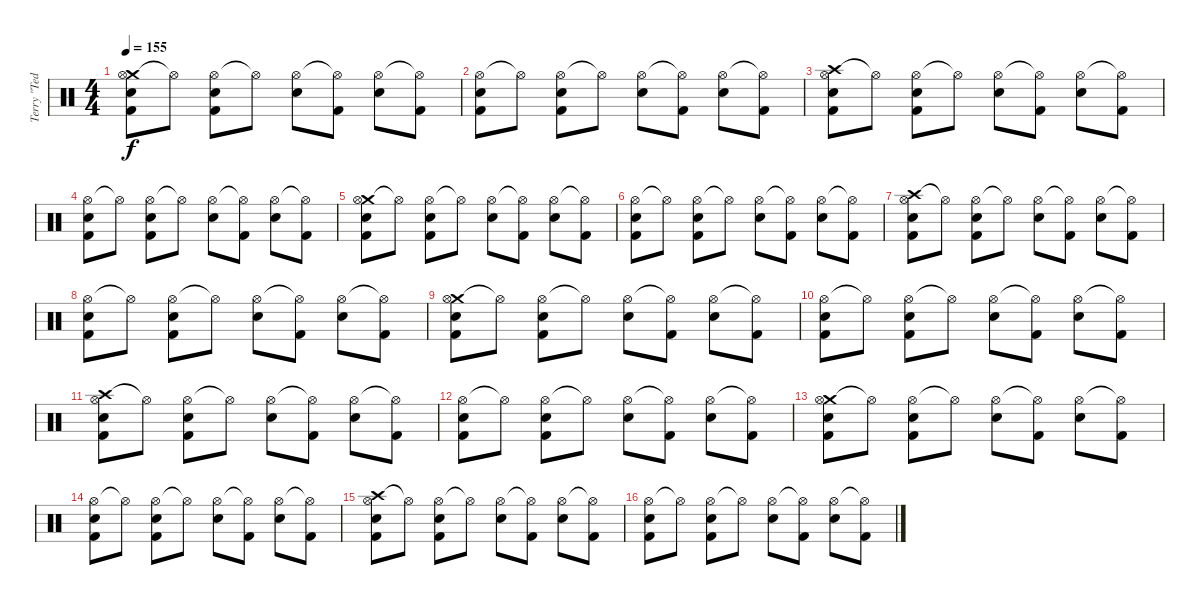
\track ("Terry \"Ted\" Bozzio" "Terry \"Ted") {instrument percussion}
\staff {score}
\articulation defaults
\ts (4 4)
\tempo 155
\clef neutral
\ks c
("Crash medium (hit)" "Hi-Hat (open)" "Electric Snare (hit)" "Kick (hit) 2").8{dy f} "Hi-Hat (open)"{t}.8 ("Hi-Hat (open)" "Electric Snare (hit)" "Kick (hit) 2").8{beam merge} "Hi-Hat (open)"{t}.8 ("Hi-Hat (open)" "Electric Snare (hit)").8 ("Hi-Hat (open)"{t} "Kick (hit) 2").8 ("Hi-Hat (open)" "Electric Snare (hit)").8 ("Hi-Hat (open)"{t} "Kick (hit) 2").8 |
("Hi-Hat (open)" "Electric Snare (hit)" "Kick (hit) 2").8 "Hi-Hat (open)"{t}.8 ("Hi-Hat (open)" "Electric Snare (hit)" "Kick (hit) 2").8{beam merge} "Hi-Hat (open)"{t}.8 ("Hi-Hat (open)" "Electric Snare (hit)").8 ("Hi-Hat (open)"{t} "Kick (hit) 2").8 ("Hi-Hat (open)" "Electric Snare (hit)").8 ("Hi-Hat (open)"{t} "Kick (hit) 2").8 |
("Crash high (hit)" "Hi-Hat (open)" "Electric Snare (hit)" "Kick (hit) 2").8 "Hi-Hat (open)"{t}.8 ("Hi-Hat (open)" "Electric Snare (hit)" "Kick (hit) 2").8{beam merge} "Hi-Hat (open)"{t}.8 ("Hi-Hat (open)" "Electric Snare (hit)").8 ("Hi-Hat (open)"{t} "Kick (hit) 2").8 ("Hi-Hat (open)" "Electric Snare (hit)").8 ("Hi-Hat (open)"{t} "Kick (hit) 2").8 |
("Hi-Hat (open)" "Electric Snare (hit)" "Kick (hit) 2").8 "Hi-Hat (open)"{t}.8 ("Hi-Hat (open)" "Electric Snare (hit)" "Kick (hit) 2").8{beam merge} "Hi-Hat (open)"{t}.8 ("Hi-Hat (open)" "Electric Snare (hit)").8 ("Hi-Hat (open)"{t} "Kick (hit) 2").8 ("Hi-Hat (open)" "Electric Snare (hit)").8 ("Hi-Hat (open)"{t} "Kick (hit) 2").8 |
("Crash medium (hit)" "Hi-Hat (open)" "Electric Snare (hit)" "Kick (hit) 2").8 "Hi-Hat (open)"{t}.8 ("Hi-Hat (open)" "Electric Snare (hit)" "Kick (hit) 2").8{beam merge} "Hi-Hat (open)"{t}.8 ("Hi-Hat (open)" "Electric Snare (hit)").8 ("Hi-Hat (open)"{t} "Kick (hit) 2").8 ("Hi-Hat (open)" "Electric Snare (hit)").8 ("Hi-Hat (open)"{t} "Kick (hit) 2").8 |
("Hi-Hat (open)" "Electric Snare (hit)" "Kick (hit) 2").8 "Hi-Hat (open)"{t}.8 ("Hi-Hat (open)" "Electric Snare (hit)" "Kick (hit) 2").8{beam merge} "Hi-Hat (open)"{t}.8 ("Hi-Hat (open)" "Electric Snare (hit)").8 ("Hi-Hat (open)"{t} "Kick (hit) 2").8 ("Hi-Hat (open)" "Electric Snare (hit)").8 ("Hi-Hat (open)"{t} "Kick (hit) 2").8 |
("Crash high (hit)" "Hi-Hat (open)" "Electric Snare (hit)" "Kick (hit) 2").8 "Hi-Hat (open)"{t}.8 ("Hi-Hat (open)" "Electric Snare (hit)" "Kick (hit) 2").8{beam merge} "Hi-Hat (open)"{t}.8 ("Hi-Hat (open)" "Electric Snare (hit)").8 ("Hi-Hat (open)"{t} "Kick (hit) 2").8 ("Hi-Hat (open)" "Electric Snare (hit)").8 ("Hi-Hat (open)"{t} "Kick (hit) 2").8 |
("Hi-Hat (open)" "Electric Snare (hit)" "Kick (hit) 2").8 "Hi-Hat (open)"{t}.8 ("Hi-Hat (open)" "Electric Snare (hit)" "Kick (hit) 2").8{beam merge} "Hi-Hat (open)"{t}.8 ("Hi-Hat (open)" "Electric Snare (hit)").8 ("Hi-Hat (open)"{t} "Kick (hit) 2").8 ("Hi-Hat (open)" "Electric Snare (hit)").8 ("Hi-Hat (open)"{t} "Kick (hit) 2").8 |
("Crash medium (hit)" "Hi-Hat (open)" "Electric Snare (hit)" "Kick (hit) 2").8 "Hi-Hat (open)"{t}.8 ("Hi-Hat (open)" "Electric Snare (hit)" "Kick (hit) 2").8{beam merge} "Hi-Hat (open)"{t}.8 ("Hi-Hat (open)" "Electric Snare (hit)").8 ("Hi-Hat (open)"{t} "Kick (hit) 2").8 ("Hi-Hat (open)" "Electric Snare (hit)").8 ("Hi-Hat (open)"{t} "Kick (hit) 2").8 |
("Hi-Hat (open)" "Electric Snare (hit)" "Kick (hit) 2").8 "Hi-Hat (open)"{t}.8 ("Hi-Hat (open)" "Electric Snare (hit)" "Kick (hit) 2").8{beam merge} "Hi-Hat (open)"{t}.8 ("Hi-Hat (open)" "Electric Snare (hit)").8 ("Hi-Hat (open)"{t} "Kick (hit) 2").8 ("Hi-Hat (open)" "Electric Snare (hit)").8 ("Hi-Hat (open)"{t} "Kick (hit) 2").8 |
("Crash high (hit)" "Hi-Hat (open)" "Electric Snare (hit)" "Kick (hit) 2").8 "Hi-Hat (open)"{t}.8 ("Hi-Hat (open)" "Electric Snare (hit)" "Kick (hit) 2").8{beam merge} "Hi-Hat (open)"{t}.8 ("Hi-Hat (open)" "Electric Snare (hit)").8 ("Hi-Hat (open)"{t} "Kick (hit) 2").8 ("Hi-Hat (open)" "Electric Snare (hit)").8 ("Hi-Hat (open)"{t} "Kick (hit) 2").8 |
("Hi-Hat (open)" "Electric Snare (hit)" "Kick (hit) 2").8 "Hi-Hat (open)"{t}.8 ("Hi-Hat (open)" "Electric Snare (hit)" "Kick (hit) 2").8{beam merge} "Hi-Hat (open)"{t}.8 ("Hi-Hat (open)" "Electric Snare (hit)").8 ("Hi-Hat (open)"{t} "Kick (hit) 2").8 ("Hi-Hat (open)" "Electric Snare (hit)").8 ("Hi-Hat (open)"{t} "Kick (hit) 2").8 |
("Crash medium (hit)" "Hi-Hat (open)" "Electric Snare (hit)" "Kick (hit) 2").8 "Hi-Hat (open)"{t}.8 ("Hi-Hat (open)" "Electric Snare (hit)" "Kick (hit) 2").8{beam merge} "Hi-Hat (open)"{t}.8 ("Hi-Hat (open)" "Electric Snare (hit)").8 ("Hi-Hat (open)"{t} "Kick (hit) 2").8 ("Hi-Hat (open)" "Electric Snare (hit)").8 ("Hi-Hat (open)"{t} "Kick (hit) 2").8 |
("Hi-Hat (open)" "Electric Snare (hit)" "Kick (hit) 2").8 "Hi-Hat (open)"{t}.8 ("Hi-Hat (open)" "Electric Snare (hit)" "Kick (hit) 2").8{beam merge} "Hi-Hat (open)"{t}.8 ("Hi-Hat (open)" "Electric Snare (hit)").8 ("Hi-Hat (open)"{t} "Kick (hit) 2").8 ("Hi-Hat (open)" "Electric Snare (hit)").8 ("Hi-Hat (open)"{t} "Kick (hit) 2").8 |
("Crash high (hit)" "Hi-Hat (open)" "Electric Snare (hit)" "Kick (hit) 2").8 "Hi-Hat (open)"{t}.8 ("Hi-Hat (open)" "Electric Snare (hit)" "Kick (hit) 2").8{beam merge} "Hi-Hat (open)"{t}.8 ("Hi-Hat (open)" "Electric Snare (hit)").8 ("Hi-Hat (open)"{t} "Kick (hit) 2").8 ("Hi-Hat (open)" "Electric Snare (hit)").8 ("Hi-Hat (open)"{t} "Kick (hit) 2").8 |
("Hi-Hat (open)" "Electric Snare (hit)" "Kick (hit) 2").8 "Hi-Hat (open)"{t}.8 ("Hi-Hat (open)" "Electric Snare (hit)" "Kick (hit) 2").8{beam merge} "Hi-Hat (open)"{t}.8 ("Hi-Hat (open)" "Electric Snare (hit)").8 ("Hi-Hat (open)"{t} "Kick (hit) 2").8 ("Hi-Hat (open)" "Electric Snare (hit)").8 ("Hi-Hat (open)"{t} "Kick (hit) 2").8
